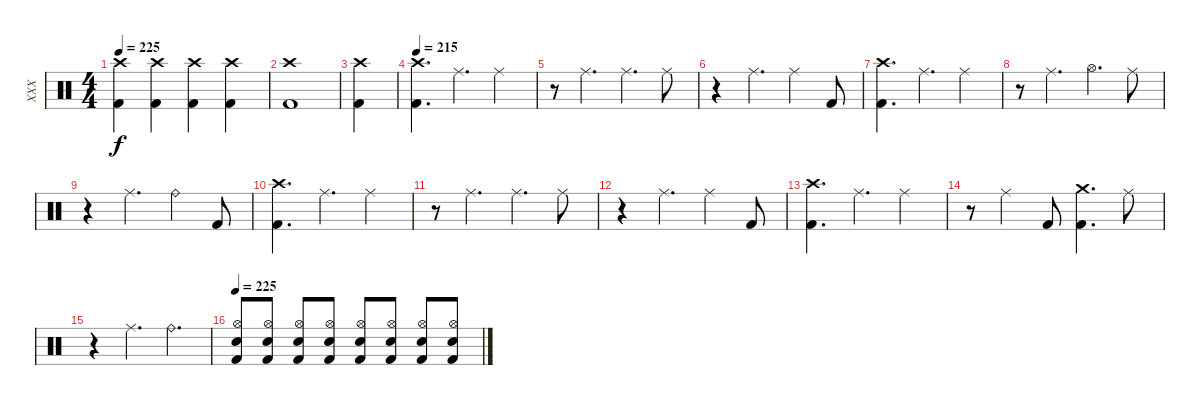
\track ("XXX" "XXX") {instrument percussion}
\staff {score}
\articulation defaults
\ts (4 4)
\tempo 225
\clef neutral
\ks c
("Crash high (hit)" "Kick (hit) 2").4{dy f} ("Crash high (hit)" "Kick (hit) 2").4 ("Crash high (hit)" "Kick (hit) 2").4 ("Crash high (hit)" "Kick (hit) 2").4 |
("Crash high (hit)" "Kick (hit) 2").1 |
("Crash high (hit)" "Kick (hit) 2").4 |
\tempo 215
("Crash high (hit)" "Kick (hit) 2").4{d} "Ride (middle)".4{d} "Ride (middle)".4 |
r.8 "Ride (middle)".4{d} "Ride (middle)".4{d} "Ride (middle)".8 |
r.4 "Ride (middle)".4{d} "Ride (middle)".4 "Kick (hit) 2".8 |
("Crash high (hit)" "Kick (hit) 2").4{d} "Ride (middle)".4{d} "Ride (middle)".4 |
r.8 "Ride (middle)".4{d} "Hi-Hat (open)".4{d} "Ride (middle)".8 |
r.4 "Ride (middle)".4{d} "Ride (bell)".4 "Kick (hit) 2".8 |
("Crash high (hit)" "Kick (hit) 2").4{d} "Ride (middle)".4{d} "Ride (middle)".4 |
r.8 "Ride (middle)".4{d} "Ride (middle)".4{d} "Ride (middle)".8 |
r.4 "Ride (middle)".4{d} "Ride (middle)".4 "Kick (hit) 2".8 |
("Crash high (hit)" "Kick (hit) 2").4{d} "Ride (middle)".4{d} "Ride (middle)".4 |
r.8 "Ride (middle)".4 "Kick (hit) 2".8 ("Crash medium (hit)" "Kick (hit) 2").4{d} "Ride (middle)".8 |
r.4 "Ride (middle)".4{d} "Ride (bell)".4{d} |
\tempo 225
("Hi-Hat (open)" "Electric Snare (hit)" "Kick (hit) 2").8 ("Hi-Hat (open)" "Electric Snare (hit)" "Kick (hit) 2").8 ("Hi-Hat (open)" "Electric Snare (hit)" "Kick (hit) 2").8 ("Hi-Hat (open)" "Electric Snare (hit)" "Kick (hit) 2").8 ("Hi-Hat (open)" "Electric Snare (hit)" "Kick (hit) 2").8 ("Hi-Hat (open)" "Electric Snare (hit)" "Kick (hit) 2").8 ("Hi-Hat (open)" "Electric Snare (hit)" "Kick (hit) 2").8 ("Hi-Hat (open)" "Electric Snare (hit)" "Kick (hit) 2").8
